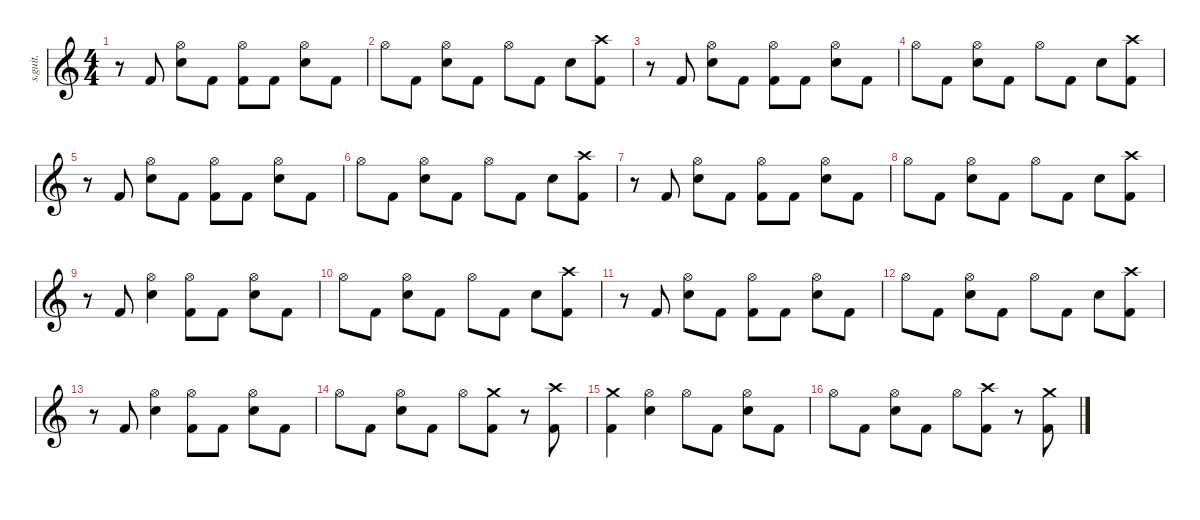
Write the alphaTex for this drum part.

\defaultSystemsLayout 4
\hideDynamics
\bracketExtendMode nobrackets
\track ("Nick Menza (Drums)" "s.guit.") {instrument percussion}
\staff {score}
\articulation defaults
\ts (4 4)
\tempo (196 hide)
\clef g2
\ks c
r.8{dy f} "Kick (hit) 2".8{lyrics (0 "") lyrics (1 "") lyrics (2 "") lyrics (3 "") lyrics (4 "") dy fff} ("Hi-Hat (open)" "Snare (hit) 2").8{lyrics (0 "") lyrics (1 "") lyrics (2 "") lyrics (3 "") lyrics (4 "") dy f} "Kick (hit) 2".8{lyrics (0 "") lyrics (1 "") lyrics (2 "") lyrics (3 "") lyrics (4 "") dy fff} ("Hi-Hat (open)" "Kick (hit) 2").8{lyrics (0 "") lyrics (1 "") lyrics (2 "") lyrics (3 "") lyrics (4 "") dy f} "Kick (hit) 2".8{lyrics (0 "") lyrics (1 "") lyrics (2 "") lyrics (3 "") lyrics (4 "") dy fff} ("Hi-Hat (open)" "Snare (hit) 2").8{lyrics (0 "") lyrics (1 "") lyrics (2 "") lyrics (3 "") lyrics (4 "") dy f} "Kick (hit) 2".8{lyrics (0 "") lyrics (1 "") lyrics (2 "") lyrics (3 "") lyrics (4 "") dy fff} |
"Hi-Hat (open)".8{lyrics (0 "") lyrics (1 "") lyrics (2 "") lyrics (3 "") lyrics (4 "") dy f} "Kick (hit) 2".8{lyrics (0 "") lyrics (1 "") lyrics (2 "") lyrics (3 "") lyrics (4 "") dy fff} ("Hi-Hat (open)" "Snare (hit) 2").8{lyrics (0 "") lyrics (1 "") lyrics (2 "") lyrics (3 "") lyrics (4 "") dy f} "Kick (hit) 2".8{lyrics (0 "") lyrics (1 "") lyrics (2 "") lyrics (3 "") lyrics (4 "") dy fff} "Hi-Hat (open)".8{lyrics (0 "") lyrics (1 "") lyrics (2 "") lyrics (3 "") lyrics (4 "") dy f} "Kick (hit) 2".8{lyrics (0 "") lyrics (1 "") lyrics (2 "") lyrics (3 "") lyrics (4 "") dy fff} "Snare (hit) 2".8{lyrics (0 "") lyrics (1 "") lyrics (2 "") lyrics (3 "") lyrics (4 "") dy f} ("Crash high (hit)" "Kick (hit) 2").8{lyrics (0 "") lyrics (1 "") lyrics (2 "") lyrics (3 "") lyrics (4 "")} |
r.8 "Kick (hit) 2".8{lyrics (0 "") lyrics (1 "") lyrics (2 "") lyrics (3 "") lyrics (4 "") dy fff} ("Hi-Hat (open)" "Snare (hit) 2").8{lyrics (0 "") lyrics (1 "") lyrics (2 "") lyrics (3 "") lyrics (4 "") dy f} "Kick (hit) 2".8{lyrics (0 "") lyrics (1 "") lyrics (2 "") lyrics (3 "") lyrics (4 "") dy fff} ("Hi-Hat (open)" "Kick (hit) 2").8{lyrics (0 "") lyrics (1 "") lyrics (2 "") lyrics (3 "") lyrics (4 "") dy f} "Kick (hit) 2".8{lyrics (0 "") lyrics (1 "") lyrics (2 "") lyrics (3 "") lyrics (4 "") dy fff} ("Hi-Hat (open)" "Snare (hit) 2").8{lyrics (0 "") lyrics (1 "") lyrics (2 "") lyrics (3 "") lyrics (4 "") dy f} "Kick (hit) 2".8{lyrics (0 "") lyrics (1 "") lyrics (2 "") lyrics (3 "") lyrics (4 "") dy fff} |
"Hi-Hat (open)".8{lyrics (0 "") lyrics (1 "") lyrics (2 "") lyrics (3 "") lyrics (4 "") dy f} "Kick (hit) 2".8{lyrics (0 "") lyrics (1 "") lyrics (2 "") lyrics (3 "") lyrics (4 "") dy fff} ("Hi-Hat (open)" "Snare (hit) 2").8{lyrics (0 "") lyrics (1 "") lyrics (2 "") lyrics (3 "") lyrics (4 "") dy f} "Kick (hit) 2".8{lyrics (0 "") lyrics (1 "") lyrics (2 "") lyrics (3 "") lyrics (4 "") dy fff} "Hi-Hat (open)".8{lyrics (0 "") lyrics (1 "") lyrics (2 "") lyrics (3 "") lyrics (4 "") dy f} "Kick (hit) 2".8{lyrics (0 "") lyrics (1 "") lyrics (2 "") lyrics (3 "") lyrics (4 "") dy fff} "Snare (hit) 2".8{lyrics (0 "") lyrics (1 "") lyrics (2 "") lyrics (3 "") lyrics (4 "") dy f} ("Crash high (hit)" "Kick (hit) 2").8{lyrics (0 "") lyrics (1 "") lyrics (2 "") lyrics (3 "") lyrics (4 "")} |
r.8 "Kick (hit) 2".8{lyrics (0 "") lyrics (1 "") lyrics (2 "") lyrics (3 "") lyrics (4 "") dy fff} ("Hi-Hat (open)" "Snare (hit) 2").8{lyrics (0 "") lyrics (1 "") lyrics (2 "") lyrics (3 "") lyrics (4 "") dy f} "Kick (hit) 2".8{lyrics (0 "") lyrics (1 "") lyrics (2 "") lyrics (3 "") lyrics (4 "") dy fff} ("Hi-Hat (open)" "Kick (hit) 2").8{lyrics (0 "") lyrics (1 "") lyrics (2 "") lyrics (3 "") lyrics (4 "") dy f} "Kick (hit) 2".8{lyrics (0 "") lyrics (1 "") lyrics (2 "") lyrics (3 "") lyrics (4 "") dy fff} ("Hi-Hat (open)" "Snare (hit) 2").8{lyrics (0 "") lyrics (1 "") lyrics (2 "") lyrics (3 "") lyrics (4 "") dy f} "Kick (hit) 2".8{lyrics (0 "") lyrics (1 "") lyrics (2 "") lyrics (3 "") lyrics (4 "") dy fff} |
"Hi-Hat (open)".8{lyrics (0 "") lyrics (1 "") lyrics (2 "") lyrics (3 "") lyrics (4 "") dy f} "Kick (hit) 2".8{lyrics (0 "") lyrics (1 "") lyrics (2 "") lyrics (3 "") lyrics (4 "") dy fff} ("Hi-Hat (open)" "Snare (hit) 2").8{lyrics (0 "") lyrics (1 "") lyrics (2 "") lyrics (3 "") lyrics (4 "") dy f} "Kick (hit) 2".8{lyrics (0 "") lyrics (1 "") lyrics (2 "") lyrics (3 "") lyrics (4 "") dy fff} "Hi-Hat (open)".8{lyrics (0 "") lyrics (1 "") lyrics (2 "") lyrics (3 "") lyrics (4 "") dy f} "Kick (hit) 2".8{lyrics (0 "") lyrics (1 "") lyrics (2 "") lyrics (3 "") lyrics (4 "") dy fff} "Snare (hit) 2".8{lyrics (0 "") lyrics (1 "") lyrics (2 "") lyrics (3 "") lyrics (4 "") dy f} ("Crash high (hit)" "Kick (hit) 2").8{lyrics (0 "") lyrics (1 "") lyrics (2 "") lyrics (3 "") lyrics (4 "")} |
r.8 "Kick (hit) 2".8{lyrics (0 "") lyrics (1 "") lyrics (2 "") lyrics (3 "") lyrics (4 "")} ("Hi-Hat (open)" "Snare (hit) 2").8{lyrics (0 "") lyrics (1 "") lyrics (2 "") lyrics (3 "") lyrics (4 "")} "Kick (hit) 2".8{lyrics (0 "") lyrics (1 "") lyrics (2 "") lyrics (3 "") lyrics (4 "") dy fff} ("Hi-Hat (open)" "Kick (hit) 2").8{lyrics (0 "") lyrics (1 "") lyrics (2 "") lyrics (3 "") lyrics (4 "") dy f} "Kick (hit) 2".8{lyrics (0 "") lyrics (1 "") lyrics (2 "") lyrics (3 "") lyrics (4 "") dy fff} ("Hi-Hat (open)" "Snare (hit) 2").8{lyrics (0 "") lyrics (1 "") lyrics (2 "") lyrics (3 "") lyrics (4 "") dy f} "Kick (hit) 2".8{lyrics (0 "") lyrics (1 "") lyrics (2 "") lyrics (3 "") lyrics (4 "") dy fff} |
"Hi-Hat (open)".8{lyrics (0 "") lyrics (1 "") lyrics (2 "") lyrics (3 "") lyrics (4 "") dy f} "Kick (hit) 2".8{lyrics (0 "") lyrics (1 "") lyrics (2 "") lyrics (3 "") lyrics (4 "") dy fff} ("Hi-Hat (open)" "Snare (hit) 2").8{lyrics (0 "") lyrics (1 "") lyrics (2 "") lyrics (3 "") lyrics (4 "") dy f} "Kick (hit) 2".8{lyrics (0 "") lyrics (1 "") lyrics (2 "") lyrics (3 "") lyrics (4 "") dy fff} "Hi-Hat (open)".8{lyrics (0 "") lyrics (1 "") lyrics (2 "") lyrics (3 "") lyrics (4 "") dy f} "Kick (hit) 2".8{lyrics (0 "") lyrics (1 "") lyrics (2 "") lyrics (3 "") lyrics (4 "") dy fff} "Snare (hit) 2".8{lyrics (0 "") lyrics (1 "") lyrics (2 "") lyrics (3 "") lyrics (4 "") dy f} ("Crash high (hit)" "Kick (hit) 2").8{lyrics (0 "") lyrics (1 "") lyrics (2 "") lyrics (3 "") lyrics (4 "")} |
r.8 "Kick (hit) 2".8{lyrics (0 "") lyrics (1 "") lyrics (2 "") lyrics (3 "") lyrics (4 "") dy fff} ("Hi-Hat (open)" "Snare (hit) 2").4{lyrics (0 "") lyrics (1 "") lyrics (2 "") lyrics (3 "") lyrics (4 "") dy f} ("Hi-Hat (open)" "Kick (hit) 2").8{lyrics (0 "") lyrics (1 "") lyrics (2 "") lyrics (3 "") lyrics (4 "")} "Kick (hit) 2".8{lyrics (0 "") lyrics (1 "") lyrics (2 "") lyrics (3 "") lyrics (4 "") dy fff} ("Hi-Hat (open)" "Snare (hit) 2").8{lyrics (0 "") lyrics (1 "") lyrics (2 "") lyrics (3 "") lyrics (4 "") dy f} "Kick (hit) 2".8{lyrics (0 "") lyrics (1 "") lyrics (2 "") lyrics (3 "") lyrics (4 "") dy fff} |
"Hi-Hat (open)".8{lyrics (0 "") lyrics (1 "") lyrics (2 "") lyrics (3 "") lyrics (4 "") dy f} "Kick (hit) 2".8{lyrics (0 "") lyrics (1 "") lyrics (2 "") lyrics (3 "") lyrics (4 "") dy fff} ("Hi-Hat (open)" "Snare (hit) 2").8{lyrics (0 "") lyrics (1 "") lyrics (2 "") lyrics (3 "") lyrics (4 "") dy f} "Kick (hit) 2".8{lyrics (0 "") lyrics (1 "") lyrics (2 "") lyrics (3 "") lyrics (4 "") dy fff} "Hi-Hat (open)".8{lyrics (0 "") lyrics (1 "") lyrics (2 "") lyrics (3 "") lyrics (4 "") dy f} "Kick (hit) 2".8{lyrics (0 "") lyrics (1 "") lyrics (2 "") lyrics (3 "") lyrics (4 "") dy fff} "Snare (hit) 2".8{lyrics (0 "") lyrics (1 "") lyrics (2 "") lyrics (3 "") lyrics (4 "") dy f} ("Crash high (hit)" "Kick (hit) 2").8{lyrics (0 "") lyrics (1 "") lyrics (2 "") lyrics (3 "") lyrics (4 "")} |
r.8 "Kick (hit) 2".8{lyrics (0 "") lyrics (1 "") lyrics (2 "") lyrics (3 "") lyrics (4 "") dy fff} ("Hi-Hat (open)" "Snare (hit) 2").8{lyrics (0 "") lyrics (1 "") lyrics (2 "") lyrics (3 "") lyrics (4 "") dy f} "Kick (hit) 2".8{lyrics (0 "") lyrics (1 "") lyrics (2 "") lyrics (3 "") lyrics (4 "") dy fff} ("Hi-Hat (open)" "Kick (hit) 2").8{lyrics (0 "") lyrics (1 "") lyrics (2 "") lyrics (3 "") lyrics (4 "") dy f} "Kick (hit) 2".8{lyrics (0 "") lyrics (1 "") lyrics (2 "") lyrics (3 "") lyrics (4 "") dy fff} ("Hi-Hat (open)" "Snare (hit) 2").8{lyrics (0 "") lyrics (1 "") lyrics (2 "") lyrics (3 "") lyrics (4 "") dy f} "Kick (hit) 2".8{lyrics (0 "") lyrics (1 "") lyrics (2 "") lyrics (3 "") lyrics (4 "") dy fff} |
"Hi-Hat (open)".8{lyrics (0 "") lyrics (1 "") lyrics (2 "") lyrics (3 "") lyrics (4 "") dy f} "Kick (hit) 2".8{lyrics (0 "") lyrics (1 "") lyrics (2 "") lyrics (3 "") lyrics (4 "") dy fff} ("Hi-Hat (open)" "Snare (hit) 2").8{lyrics (0 "") lyrics (1 "") lyrics (2 "") lyrics (3 "") lyrics (4 "") dy f} "Kick (hit) 2".8{lyrics (0 "") lyrics (1 "") lyrics (2 "") lyrics (3 "") lyrics (4 "") dy fff} "Hi-Hat (open)".8{lyrics (0 "") lyrics (1 "") lyrics (2 "") lyrics (3 "") lyrics (4 "") dy f} "Kick (hit) 2".8{lyrics (0 "") lyrics (1 "") lyrics (2 "") lyrics (3 "") lyrics (4 "") dy fff} "Snare (hit) 2".8{lyrics (0 "") lyrics (1 "") lyrics (2 "") lyrics (3 "") lyrics (4 "") dy f} ("Crash high (hit)" "Kick (hit) 2").8{lyrics (0 "") lyrics (1 "") lyrics (2 "") lyrics (3 "") lyrics (4 "")} |
r.8 "Kick (hit) 2".8{lyrics (0 "") lyrics (1 "") lyrics (2 "") lyrics (3 "") lyrics (4 "") dy fff} ("Hi-Hat (open)" "Snare (hit) 2").4{lyrics (0 "") lyrics (1 "") lyrics (2 "") lyrics (3 "") lyrics (4 "") dy f} ("Hi-Hat (open)" "Kick (hit) 2").8{lyrics (0 "") lyrics (1 "") lyrics (2 "") lyrics (3 "") lyrics (4 "")} "Kick (hit) 2".8{lyrics (0 "") lyrics (1 "") lyrics (2 "") lyrics (3 "") lyrics (4 "") dy fff} ("Hi-Hat (open)" "Snare (hit) 2").8{lyrics (0 "") lyrics (1 "") lyrics (2 "") lyrics (3 "") lyrics (4 "") dy f} "Kick (hit) 2".8{lyrics (0 "") lyrics (1 "") lyrics (2 "") lyrics (3 "") lyrics (4 "") dy fff} |
"Hi-Hat (open)".8{lyrics (0 "") lyrics (1 "") lyrics (2 "") lyrics (3 "") lyrics (4 "") dy f} "Kick (hit) 2".8{lyrics (0 "") lyrics (1 "") lyrics (2 "") lyrics (3 "") lyrics (4 "") dy fff} ("Hi-Hat (open)" "Snare (hit) 2").8{lyrics (0 "") lyrics (1 "") lyrics (2 "") lyrics (3 "") lyrics (4 "") dy f} "Kick (hit) 2".8{lyrics (0 "") lyrics (1 "") lyrics (2 "") lyrics (3 "") lyrics (4 "") dy fff} "Hi-Hat (open)".8{lyrics (0 "") lyrics (1 "") lyrics (2 "") lyrics (3 "") lyrics (4 "") dy f} ("Crash medium (hit)" "Kick (hit) 2").8{lyrics (0 "") lyrics (1 "") lyrics (2 "") lyrics (3 "") lyrics (4 "")} r.8 ("Crash high (hit)" "Kick (hit) 2").8{lyrics (0 "") lyrics (1 "") lyrics (2 "") lyrics (3 "") lyrics (4 "")} |
("Crash medium (hit)" "Kick (hit) 2").4{lyrics (0 "") lyrics (1 "") lyrics (2 "") lyrics (3 "") lyrics (4 "")} ("Hi-Hat (open)" "Snare (hit) 2").4{lyrics (0 "") lyrics (1 "") lyrics (2 "") lyrics (3 "") lyrics (4 "")} "Hi-Hat (open)".8{lyrics (0 "") lyrics (1 "") lyrics (2 "") lyrics (3 "") lyrics (4 "")} "Kick (hit) 2".8{lyrics (0 "") lyrics (1 "") lyrics (2 "") lyrics (3 "") lyrics (4 "") dy fff} ("Hi-Hat (open)" "Snare (hit) 2").8{lyrics (0 "") lyrics (1 "") lyrics (2 "") lyrics (3 "") lyrics (4 "") dy f} "Kick (hit) 2".8{lyrics (0 "") lyrics (1 "") lyrics (2 "") lyrics (3 "") lyrics (4 "") dy fff} |
"Hi-Hat (open)".8{lyrics (0 "") lyrics (1 "") lyrics (2 "") lyrics (3 "") lyrics (4 "") dy f} "Kick (hit) 2".8{lyrics (0 "") lyrics (1 "") lyrics (2 "") lyrics (3 "") lyrics (4 "") dy fff} ("Hi-Hat (open)" "Snare (hit) 2").8{lyrics (0 "") lyrics (1 "") lyrics (2 "") lyrics (3 "") lyrics (4 "") dy f} "Kick (hit) 2".8{lyrics (0 "") lyrics (1 "") lyrics (2 "") lyrics (3 "") lyrics (4 "") dy fff} "Hi-Hat (open)".8{lyrics (0 "") lyrics (1 "") lyrics (2 "") lyrics (3 "") lyrics (4 "") dy f} ("Crash high (hit)" "Kick (hit) 2").8{lyrics (0 "") lyrics (1 "") lyrics (2 "") lyrics (3 "") lyrics (4 "")} r.8 ("Crash medium (hit)" "Kick (hit) 2").8{lyrics (0 "") lyrics (1 "") lyrics (2 "") lyrics (3 "") lyrics (4 "")}
